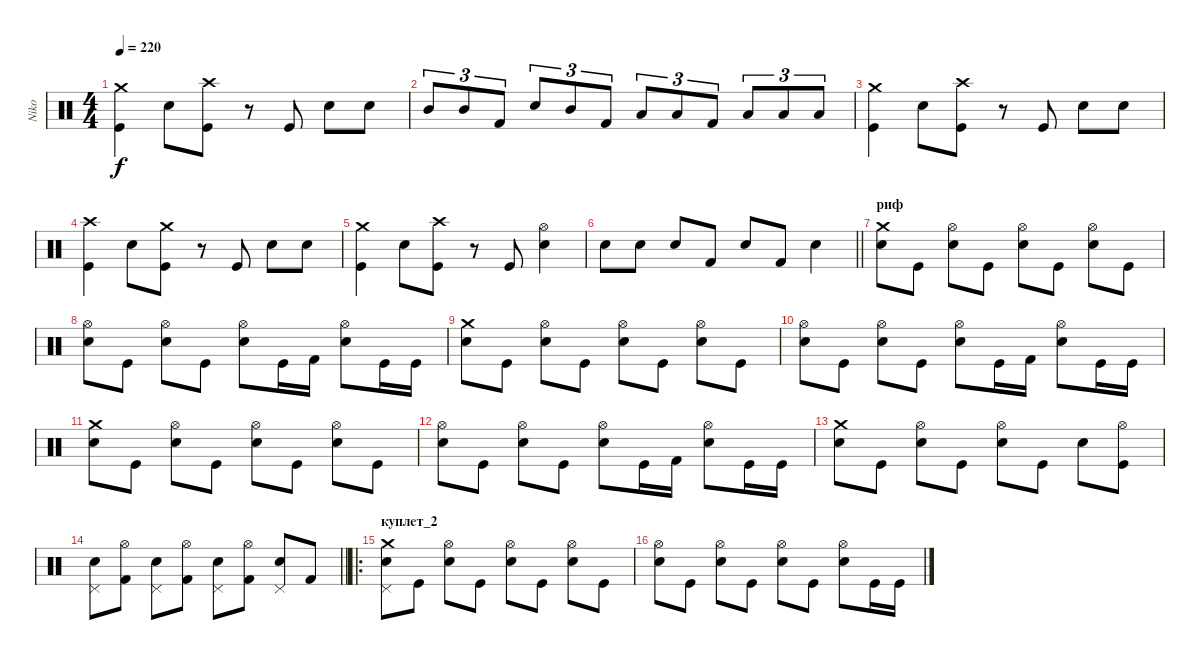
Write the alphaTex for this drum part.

\track ("Niko" "Niko") {instrument percussion}
\staff {score}
\articulation defaults
\ts (4 4)
\tempo 220
\clef neutral
\ks c
("Crash medium (hit)" "Kick (hit)").4{dy f} "Snare (hit) 2".8 ("Crash high (hit)" "Kick (hit)").8 r.8 "Kick (hit)".8 "Snare (hit) 2".8 "Snare (hit) 2".8 |
"Mid Tom (hit)".8{tu (3 2)} "Mid Tom (hit)".8{tu (3 2)} "Kick (hit) 2".8{tu (3 2)} "Snare (hit) 2".8{tu (3 2)} "Mid Tom (hit)".8{tu (3 2)} "Kick (hit) 2".8{tu (3 2)} "Low Tom (hit)".8{tu (3 2)} "Low Tom (hit)".8{tu (3 2)} "Kick (hit) 2".8{tu (3 2)} "Low Tom (hit)".8{tu (3 2)} "Low Floor Tom (hit)".8{tu (3 2)} "Low Floor Tom (hit)".8{tu (3 2)} |
("Crash medium (hit)" "Kick (hit)").4 "Snare (hit) 2".8 ("Crash high (hit)" "Kick (hit)").8 r.8 "Kick (hit)".8 "Snare (hit) 2".8 "Snare (hit) 2".8 |
("Crash high (hit)" "Kick (hit)").4 "Snare (hit) 2".8 ("Crash medium (hit)" "Kick (hit)").8 r.8 "Kick (hit)".8 "Snare (hit) 2".8 "Snare (hit) 2".8 |
("Crash medium (hit)" "Kick (hit)").4 "Snare (hit) 2".8 ("Crash high (hit)" "Kick (hit)").8 r.8 "Kick (hit)".8 ("Hi-Hat (open)" "Snare (hit) 2").4 |
\barLineRight lightlight "Snare (hit) 2".8 "Snare (hit) 2".8 "Snare (hit) 2".8 "Kick (hit) 2".8 "Snare (hit) 2".8 "Kick (hit) 2".8 "Snare (hit) 2".4
|
\section ("" "риф")
("Crash medium (hit)" "Snare (hit) 2").8 "Kick (hit)".8 ("Hi-Hat (open)" "Snare (hit) 2").8 "Kick (hit)".8 ("Hi-Hat (open)" "Snare (hit) 2").8 "Kick (hit)".8 ("Hi-Hat (open)" "Snare (hit) 2").8 "Kick (hit)".8 |
("Hi-Hat (open)" "Snare (hit) 2").8 "Kick (hit)".8 ("Hi-Hat (open)" "Snare (hit) 2").8 "Kick (hit)".8 ("Hi-Hat (open)" "Snare (hit) 2").8 "Kick (hit)".16 "Kick (hit) 2".16 ("Hi-Hat (open)" "Snare (hit) 2").8 "Kick (hit)".16 "Kick (hit)".16 |
("Crash medium (hit)" "Snare (hit) 2").8 "Kick (hit)".8 ("Hi-Hat (open)" "Snare (hit) 2").8 "Kick (hit)".8 ("Hi-Hat (open)" "Snare (hit) 2").8 "Kick (hit)".8 ("Hi-Hat (open)" "Snare (hit) 2").8 "Kick (hit)".8 |
("Hi-Hat (open)" "Snare (hit) 2").8 "Kick (hit)".8 ("Hi-Hat (open)" "Snare (hit) 2").8 "Kick (hit)".8 ("Hi-Hat (open)" "Snare (hit) 2").8 "Kick (hit)".16 "Kick (hit) 2".16 ("Hi-Hat (open)" "Snare (hit) 2").8 "Kick (hit)".16 "Kick (hit)".16 |
("Crash medium (hit)" "Snare (hit) 2").8 "Kick (hit)".8 ("Hi-Hat (open)" "Snare (hit) 2").8 "Kick (hit)".8 ("Hi-Hat (open)" "Snare (hit) 2").8 "Kick (hit)".8 ("Hi-Hat (open)" "Snare (hit) 2").8 "Kick (hit)".8 |
("Hi-Hat (open)" "Snare (hit) 2").8 "Kick (hit)".8 ("Hi-Hat (open)" "Snare (hit) 2").8 "Kick (hit)".8 ("Hi-Hat (open)" "Snare (hit) 2").8 "Kick (hit)".16 "Kick (hit) 2".16 ("Hi-Hat (open)" "Snare (hit) 2").8 "Kick (hit)".16 "Kick (hit)".16 |
("Crash medium (hit)" "Snare (hit) 2").8 "Kick (hit)".8 ("Hi-Hat (open)" "Snare (hit) 2").8 "Kick (hit)".8 ("Hi-Hat (open)" "Snare (hit) 2").8 "Kick (hit)".8 "Snare (hit) 2".8 ("Hi-Hat (open)" "Kick (hit)").8 |
\barLineRight lightlight
("Snare (hit) 2" "Pedal Hi-Hat (hit)").8 ("Hi-Hat (open)" "Kick (hit) 2").8 ("Snare (hit) 2" "Pedal Hi-Hat (hit)").8 ("Hi-Hat (open)" "Kick (hit) 2").8 ("Snare (hit) 2" "Pedal Hi-Hat (hit)").8 ("Hi-Hat (open)" "Kick (hit) 2").8 ("Snare (hit) 2" "Pedal Hi-Hat (hit)").8 "Kick (hit) 2".8 |
\ro
\section ("" "куплет_2")
("Crash medium (hit)" "Snare (hit) 2" "Pedal Hi-Hat (hit)").8 "Kick (hit)".8 ("Hi-Hat (open)" "Snare (hit) 2").8 "Kick (hit)".8 ("Hi-Hat (open)" "Snare (hit) 2").8 "Kick (hit)".8 ("Hi-Hat (open)" "Snare (hit) 2").8 "Kick (hit)".8 |
("Hi-Hat (open)" "Snare (hit) 2").8 "Kick (hit)".8 ("Hi-Hat (open)" "Snare (hit) 2").8 "Kick (hit)".8 ("Hi-Hat (open)" "Snare (hit) 2").8 "Kick (hit)".8 ("Hi-Hat (open)" "Snare (hit) 2").8 "Kick (hit)".16 "Kick (hit)".16
